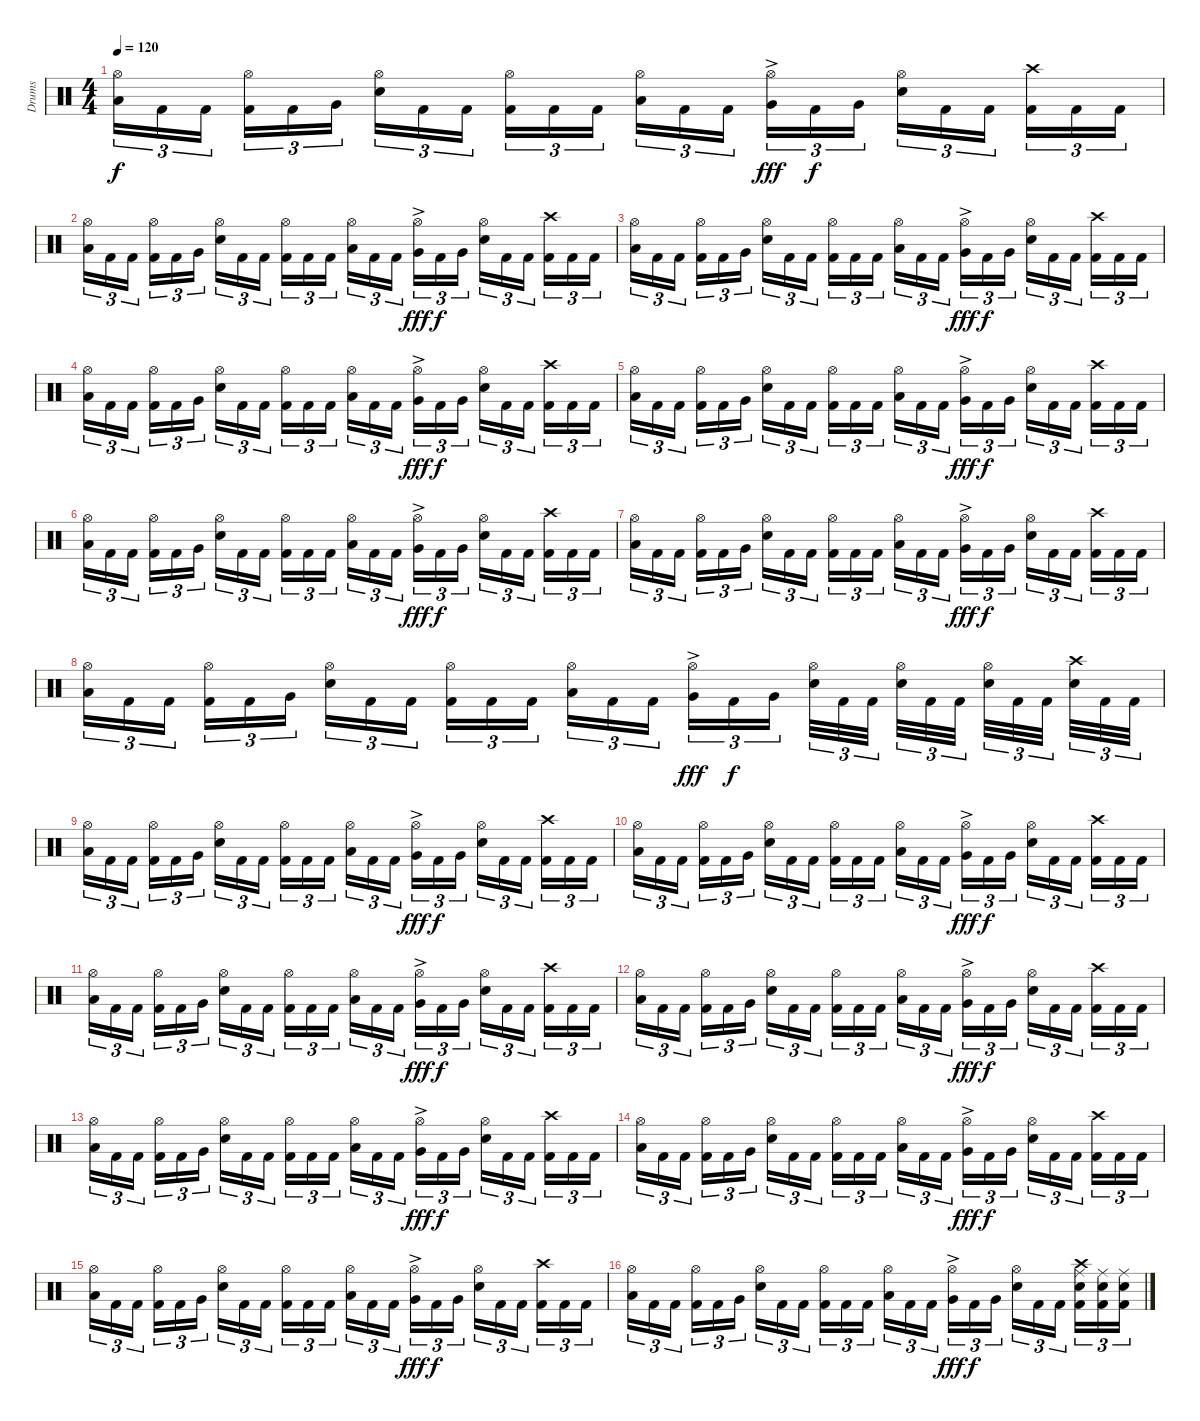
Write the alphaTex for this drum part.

\track ("Drums" "Drums") {instrument percussion}
\staff {score}
\articulation defaults
\ts (4 4)
\tempo 120
\clef neutral
\ks c
("Hi-Hat (open)" "Low Tom (hit)").16{tu (3 2) dy f} "Kick (hit) 2".16{tu (3 2)} "Kick (hit) 2".16{tu (3 2)} ("Hi-Hat (open)" "Kick (hit) 2").16{tu (3 2)} "Kick (hit) 2".16{tu (3 2)} "Very Low Tom (hit)".16{tu (3 2)} ("Hi-Hat (open)" "Electric Snare (hit)").16{tu (3 2)} "Kick (hit) 2".16{tu (3 2)} "Kick (hit) 2".16{tu (3 2)} ("Hi-Hat (open)" "Kick (hit) 2").16{tu (3 2)} "Kick (hit) 2".16{tu (3 2)} "Kick (hit) 2".16{tu (3 2)} ("Hi-Hat (open)" "Low Tom (hit)").16{tu (3 2)} "Kick (hit) 2".16{tu (3 2)} "Kick (hit) 2".16{tu (3 2)} ("Hi-Hat (open)" "Very Low Tom (hit)"{ac}).16{tu (3 2) dy fff} "Kick (hit) 2".16{tu (3 2) dy f} "Very Low Tom (hit)".16{tu (3 2)} ("Hi-Hat (open)" "Electric Snare (hit)").16{tu (3 2)} "Kick (hit) 2".16{tu (3 2)} "Kick (hit) 2".16{tu (3 2)} ("Crash high (hit)" "Kick (hit) 2").16{tu (3 2)} "Kick (hit) 2".16{tu (3 2)} "Kick (hit) 2".16{tu (3 2)} |
("Hi-Hat (open)" "Low Tom (hit)").16{tu (3 2)} "Kick (hit) 2".16{tu (3 2)} "Kick (hit) 2".16{tu (3 2)} ("Hi-Hat (open)" "Kick (hit) 2").16{tu (3 2)} "Kick (hit) 2".16{tu (3 2)} "Very Low Tom (hit)".16{tu (3 2)} ("Hi-Hat (open)" "Electric Snare (hit)").16{tu (3 2)} "Kick (hit) 2".16{tu (3 2)} "Kick (hit) 2".16{tu (3 2)} ("Hi-Hat (open)" "Kick (hit) 2").16{tu (3 2)} "Kick (hit) 2".16{tu (3 2)} "Kick (hit) 2".16{tu (3 2)} ("Hi-Hat (open)" "Low Tom (hit)").16{tu (3 2)} "Kick (hit) 2".16{tu (3 2)} "Kick (hit) 2".16{tu (3 2)} ("Hi-Hat (open)" "Very Low Tom (hit)"{ac}).16{tu (3 2) dy fff} "Kick (hit) 2".16{tu (3 2) dy f} "Very Low Tom (hit)".16{tu (3 2)} ("Hi-Hat (open)" "Electric Snare (hit)").16{tu (3 2)} "Kick (hit) 2".16{tu (3 2)} "Kick (hit) 2".16{tu (3 2)} ("Crash high (hit)" "Kick (hit) 2").16{tu (3 2)} "Kick (hit) 2".16{tu (3 2)} "Kick (hit) 2".16{tu (3 2)} |
("Hi-Hat (open)" "Low Tom (hit)").16{tu (3 2)} "Kick (hit) 2".16{tu (3 2)} "Kick (hit) 2".16{tu (3 2)} ("Hi-Hat (open)" "Kick (hit) 2").16{tu (3 2)} "Kick (hit) 2".16{tu (3 2)} "Very Low Tom (hit)".16{tu (3 2)} ("Hi-Hat (open)" "Electric Snare (hit)").16{tu (3 2)} "Kick (hit) 2".16{tu (3 2)} "Kick (hit) 2".16{tu (3 2)} ("Hi-Hat (open)" "Kick (hit) 2").16{tu (3 2)} "Kick (hit) 2".16{tu (3 2)} "Kick (hit) 2".16{tu (3 2)} ("Hi-Hat (open)" "Low Tom (hit)").16{tu (3 2)} "Kick (hit) 2".16{tu (3 2)} "Kick (hit) 2".16{tu (3 2)} ("Hi-Hat (open)" "Very Low Tom (hit)"{ac}).16{tu (3 2) dy fff} "Kick (hit) 2".16{tu (3 2) dy f} "Very Low Tom (hit)".16{tu (3 2)} ("Hi-Hat (open)" "Electric Snare (hit)").16{tu (3 2)} "Kick (hit) 2".16{tu (3 2)} "Kick (hit) 2".16{tu (3 2)} ("Crash high (hit)" "Kick (hit) 2").16{tu (3 2)} "Kick (hit) 2".16{tu (3 2)} "Kick (hit) 2".16{tu (3 2)} |
("Hi-Hat (open)" "Low Tom (hit)").16{tu (3 2)} "Kick (hit) 2".16{tu (3 2)} "Kick (hit) 2".16{tu (3 2)} ("Hi-Hat (open)" "Kick (hit) 2").16{tu (3 2)} "Kick (hit) 2".16{tu (3 2)} "Very Low Tom (hit)".16{tu (3 2)} ("Hi-Hat (open)" "Electric Snare (hit)").16{tu (3 2)} "Kick (hit) 2".16{tu (3 2)} "Kick (hit) 2".16{tu (3 2)} ("Hi-Hat (open)" "Kick (hit) 2").16{tu (3 2)} "Kick (hit) 2".16{tu (3 2)} "Kick (hit) 2".16{tu (3 2)} ("Hi-Hat (open)" "Low Tom (hit)").16{tu (3 2)} "Kick (hit) 2".16{tu (3 2)} "Kick (hit) 2".16{tu (3 2)} ("Hi-Hat (open)" "Very Low Tom (hit)"{ac}).16{tu (3 2) dy fff} "Kick (hit) 2".16{tu (3 2) dy f} "Very Low Tom (hit)".16{tu (3 2)} ("Hi-Hat (open)" "Electric Snare (hit)").16{tu (3 2)} "Kick (hit) 2".16{tu (3 2)} "Kick (hit) 2".16{tu (3 2)} ("Crash high (hit)" "Kick (hit) 2").16{tu (3 2)} "Kick (hit) 2".16{tu (3 2)} "Kick (hit) 2".16{tu (3 2)} |
("Hi-Hat (open)" "Low Tom (hit)").16{tu (3 2)} "Kick (hit) 2".16{tu (3 2)} "Kick (hit) 2".16{tu (3 2)} ("Hi-Hat (open)" "Kick (hit) 2").16{tu (3 2)} "Kick (hit) 2".16{tu (3 2)} "Very Low Tom (hit)".16{tu (3 2)} ("Hi-Hat (open)" "Electric Snare (hit)").16{tu (3 2)} "Kick (hit) 2".16{tu (3 2)} "Kick (hit) 2".16{tu (3 2)} ("Hi-Hat (open)" "Kick (hit) 2").16{tu (3 2)} "Kick (hit) 2".16{tu (3 2)} "Kick (hit) 2".16{tu (3 2)} ("Hi-Hat (open)" "Low Tom (hit)").16{tu (3 2)} "Kick (hit) 2".16{tu (3 2)} "Kick (hit) 2".16{tu (3 2)} ("Hi-Hat (open)" "Very Low Tom (hit)"{ac}).16{tu (3 2) dy fff} "Kick (hit) 2".16{tu (3 2) dy f} "Very Low Tom (hit)".16{tu (3 2)} ("Hi-Hat (open)" "Electric Snare (hit)").16{tu (3 2)} "Kick (hit) 2".16{tu (3 2)} "Kick (hit) 2".16{tu (3 2)} ("Crash high (hit)" "Kick (hit) 2").16{tu (3 2)} "Kick (hit) 2".16{tu (3 2)} "Kick (hit) 2".16{tu (3 2)} |
("Hi-Hat (open)" "Low Tom (hit)").16{tu (3 2)} "Kick (hit) 2".16{tu (3 2)} "Kick (hit) 2".16{tu (3 2)} ("Hi-Hat (open)" "Kick (hit) 2").16{tu (3 2)} "Kick (hit) 2".16{tu (3 2)} "Very Low Tom (hit)".16{tu (3 2)} ("Hi-Hat (open)" "Electric Snare (hit)").16{tu (3 2)} "Kick (hit) 2".16{tu (3 2)} "Kick (hit) 2".16{tu (3 2)} ("Hi-Hat (open)" "Kick (hit) 2").16{tu (3 2)} "Kick (hit) 2".16{tu (3 2)} "Kick (hit) 2".16{tu (3 2)} ("Hi-Hat (open)" "Low Tom (hit)").16{tu (3 2)} "Kick (hit) 2".16{tu (3 2)} "Kick (hit) 2".16{tu (3 2)} ("Hi-Hat (open)" "Very Low Tom (hit)"{ac}).16{tu (3 2) dy fff} "Kick (hit) 2".16{tu (3 2) dy f} "Very Low Tom (hit)".16{tu (3 2)} ("Hi-Hat (open)" "Electric Snare (hit)").16{tu (3 2)} "Kick (hit) 2".16{tu (3 2)} "Kick (hit) 2".16{tu (3 2)} ("Crash high (hit)" "Kick (hit) 2").16{tu (3 2)} "Kick (hit) 2".16{tu (3 2)} "Kick (hit) 2".16{tu (3 2)} |
("Hi-Hat (open)" "Low Tom (hit)").16{tu (3 2)} "Kick (hit) 2".16{tu (3 2)} "Kick (hit) 2".16{tu (3 2)} ("Hi-Hat (open)" "Kick (hit) 2").16{tu (3 2)} "Kick (hit) 2".16{tu (3 2)} "Very Low Tom (hit)".16{tu (3 2)} ("Hi-Hat (open)" "Electric Snare (hit)").16{tu (3 2)} "Kick (hit) 2".16{tu (3 2)} "Kick (hit) 2".16{tu (3 2)} ("Hi-Hat (open)" "Kick (hit) 2").16{tu (3 2)} "Kick (hit) 2".16{tu (3 2)} "Kick (hit) 2".16{tu (3 2)} ("Hi-Hat (open)" "Low Tom (hit)").16{tu (3 2)} "Kick (hit) 2".16{tu (3 2)} "Kick (hit) 2".16{tu (3 2)} ("Hi-Hat (open)" "Very Low Tom (hit)"{ac}).16{tu (3 2) dy fff} "Kick (hit) 2".16{tu (3 2) dy f} "Very Low Tom (hit)".16{tu (3 2)} ("Hi-Hat (open)" "Electric Snare (hit)").16{tu (3 2)} "Kick (hit) 2".16{tu (3 2)} "Kick (hit) 2".16{tu (3 2)} ("Crash high (hit)" "Kick (hit) 2").16{tu (3 2)} "Kick (hit) 2".16{tu (3 2)} "Kick (hit) 2".16{tu (3 2)} |
("Hi-Hat (open)" "Low Tom (hit)").16{tu (3 2)} "Kick (hit) 2".16{tu (3 2)} "Kick (hit) 2".16{tu (3 2)} ("Hi-Hat (open)" "Kick (hit) 2").16{tu (3 2)} "Kick (hit) 2".16{tu (3 2)} "Very Low Tom (hit)".16{tu (3 2)} ("Hi-Hat (open)" "Electric Snare (hit)").16{tu (3 2)} "Kick (hit) 2".16{tu (3 2)} "Kick (hit) 2".16{tu (3 2)} ("Hi-Hat (open)" "Kick (hit) 2").16{tu (3 2)} "Kick (hit) 2".16{tu (3 2)} "Kick (hit) 2".16{tu (3 2)} ("Hi-Hat (open)" "Low Tom (hit)").16{tu (3 2)} "Kick (hit) 2".16{tu (3 2)} "Kick (hit) 2".16{tu (3 2)} ("Hi-Hat (open)" "Very Low Tom (hit)"{ac}).16{tu (3 2) dy fff} "Kick (hit) 2".16{tu (3 2) dy f} "Very Low Tom (hit)".16{tu (3 2)} ("Hi-Hat (open)" "Electric Snare (hit)").32{tu (3 2)} "Kick (hit) 2".32{tu (3 2)} "Kick (hit) 2".32{tu (3 2)} ("Hi-Hat (open)" "Electric Snare (hit)").32{tu (3 2)} "Kick (hit) 2".32{tu (3 2)} "Kick (hit) 2".32{tu (3 2)} ("Hi-Hat (open)" "Electric Snare (hit)").32{tu (3 2)} "Kick (hit) 2".32{tu (3 2)} "Kick (hit) 2".32{tu (3 2)} ("Crash high (hit)" "Electric Snare (hit)").32{tu (3 2)} "Kick (hit) 2".32{tu (3 2)} "Kick (hit) 2".32{tu (3 2)} |
("Hi-Hat (open)" "Low Tom (hit)").16{tu (3 2)} "Kick (hit) 2".16{tu (3 2)} "Kick (hit) 2".16{tu (3 2)} ("Hi-Hat (open)" "Kick (hit) 2").16{tu (3 2)} "Kick (hit) 2".16{tu (3 2)} "Very Low Tom (hit)".16{tu (3 2)} ("Hi-Hat (open)" "Electric Snare (hit)").16{tu (3 2)} "Kick (hit) 2".16{tu (3 2)} "Kick (hit) 2".16{tu (3 2)} ("Hi-Hat (open)" "Kick (hit) 2").16{tu (3 2)} "Kick (hit) 2".16{tu (3 2)} "Kick (hit) 2".16{tu (3 2)} ("Hi-Hat (open)" "Low Tom (hit)").16{tu (3 2)} "Kick (hit) 2".16{tu (3 2)} "Kick (hit) 2".16{tu (3 2)} ("Hi-Hat (open)" "Very Low Tom (hit)"{ac}).16{tu (3 2) dy fff} "Kick (hit) 2".16{tu (3 2) dy f} "Very Low Tom (hit)".16{tu (3 2)} ("Hi-Hat (open)" "Electric Snare (hit)").16{tu (3 2)} "Kick (hit) 2".16{tu (3 2)} "Kick (hit) 2".16{tu (3 2)} ("Crash high (hit)" "Kick (hit) 2").16{tu (3 2)} "Kick (hit) 2".16{tu (3 2)} "Kick (hit) 2".16{tu (3 2)} |
("Hi-Hat (open)" "Low Tom (hit)").16{tu (3 2)} "Kick (hit) 2".16{tu (3 2)} "Kick (hit) 2".16{tu (3 2)} ("Hi-Hat (open)" "Kick (hit) 2").16{tu (3 2)} "Kick (hit) 2".16{tu (3 2)} "Very Low Tom (hit)".16{tu (3 2)} ("Hi-Hat (open)" "Electric Snare (hit)").16{tu (3 2)} "Kick (hit) 2".16{tu (3 2)} "Kick (hit) 2".16{tu (3 2)} ("Hi-Hat (open)" "Kick (hit) 2").16{tu (3 2)} "Kick (hit) 2".16{tu (3 2)} "Kick (hit) 2".16{tu (3 2)} ("Hi-Hat (open)" "Low Tom (hit)").16{tu (3 2)} "Kick (hit) 2".16{tu (3 2)} "Kick (hit) 2".16{tu (3 2)} ("Hi-Hat (open)" "Very Low Tom (hit)"{ac}).16{tu (3 2) dy fff} "Kick (hit) 2".16{tu (3 2) dy f} "Very Low Tom (hit)".16{tu (3 2)} ("Hi-Hat (open)" "Electric Snare (hit)").16{tu (3 2)} "Kick (hit) 2".16{tu (3 2)} "Kick (hit) 2".16{tu (3 2)} ("Crash high (hit)" "Kick (hit) 2").16{tu (3 2)} "Kick (hit) 2".16{tu (3 2)} "Kick (hit) 2".16{tu (3 2)} |
("Hi-Hat (open)" "Low Tom (hit)").16{tu (3 2)} "Kick (hit) 2".16{tu (3 2)} "Kick (hit) 2".16{tu (3 2)} ("Hi-Hat (open)" "Kick (hit) 2").16{tu (3 2)} "Kick (hit) 2".16{tu (3 2)} "Very Low Tom (hit)".16{tu (3 2)} ("Hi-Hat (open)" "Electric Snare (hit)").16{tu (3 2)} "Kick (hit) 2".16{tu (3 2)} "Kick (hit) 2".16{tu (3 2)} ("Hi-Hat (open)" "Kick (hit) 2").16{tu (3 2)} "Kick (hit) 2".16{tu (3 2)} "Kick (hit) 2".16{tu (3 2)} ("Hi-Hat (open)" "Low Tom (hit)").16{tu (3 2)} "Kick (hit) 2".16{tu (3 2)} "Kick (hit) 2".16{tu (3 2)} ("Hi-Hat (open)" "Very Low Tom (hit)"{ac}).16{tu (3 2) dy fff} "Kick (hit) 2".16{tu (3 2) dy f} "Very Low Tom (hit)".16{tu (3 2)} ("Hi-Hat (open)" "Electric Snare (hit)").16{tu (3 2)} "Kick (hit) 2".16{tu (3 2)} "Kick (hit) 2".16{tu (3 2)} ("Crash high (hit)" "Kick (hit) 2").16{tu (3 2)} "Kick (hit) 2".16{tu (3 2)} "Kick (hit) 2".16{tu (3 2)} |
("Hi-Hat (open)" "Low Tom (hit)").16{tu (3 2)} "Kick (hit) 2".16{tu (3 2)} "Kick (hit) 2".16{tu (3 2)} ("Hi-Hat (open)" "Kick (hit) 2").16{tu (3 2)} "Kick (hit) 2".16{tu (3 2)} "Very Low Tom (hit)".16{tu (3 2)} ("Hi-Hat (open)" "Electric Snare (hit)").16{tu (3 2)} "Kick (hit) 2".16{tu (3 2)} "Kick (hit) 2".16{tu (3 2)} ("Hi-Hat (open)" "Kick (hit) 2").16{tu (3 2)} "Kick (hit) 2".16{tu (3 2)} "Kick (hit) 2".16{tu (3 2)} ("Hi-Hat (open)" "Low Tom (hit)").16{tu (3 2)} "Kick (hit) 2".16{tu (3 2)} "Kick (hit) 2".16{tu (3 2)} ("Hi-Hat (open)" "Very Low Tom (hit)"{ac}).16{tu (3 2) dy fff} "Kick (hit) 2".16{tu (3 2) dy f} "Very Low Tom (hit)".16{tu (3 2)} ("Hi-Hat (open)" "Electric Snare (hit)").16{tu (3 2)} "Kick (hit) 2".16{tu (3 2)} "Kick (hit) 2".16{tu (3 2)} ("Crash high (hit)" "Kick (hit) 2").16{tu (3 2)} "Kick (hit) 2".16{tu (3 2)} "Kick (hit) 2".16{tu (3 2)} |
("Hi-Hat (open)" "Low Tom (hit)").16{tu (3 2)} "Kick (hit) 2".16{tu (3 2)} "Kick (hit) 2".16{tu (3 2)} ("Hi-Hat (open)" "Kick (hit) 2").16{tu (3 2)} "Kick (hit) 2".16{tu (3 2)} "Very Low Tom (hit)".16{tu (3 2)} ("Hi-Hat (open)" "Electric Snare (hit)").16{tu (3 2)} "Kick (hit) 2".16{tu (3 2)} "Kick (hit) 2".16{tu (3 2)} ("Hi-Hat (open)" "Kick (hit) 2").16{tu (3 2)} "Kick (hit) 2".16{tu (3 2)} "Kick (hit) 2".16{tu (3 2)} ("Hi-Hat (open)" "Low Tom (hit)").16{tu (3 2)} "Kick (hit) 2".16{tu (3 2)} "Kick (hit) 2".16{tu (3 2)} ("Hi-Hat (open)" "Very Low Tom (hit)"{ac}).16{tu (3 2) dy fff} "Kick (hit) 2".16{tu (3 2) dy f} "Very Low Tom (hit)".16{tu (3 2)} ("Hi-Hat (open)" "Electric Snare (hit)").16{tu (3 2)} "Kick (hit) 2".16{tu (3 2)} "Kick (hit) 2".16{tu (3 2)} ("Crash high (hit)" "Kick (hit) 2").16{tu (3 2)} "Kick (hit) 2".16{tu (3 2)} "Kick (hit) 2".16{tu (3 2)} |
("Hi-Hat (open)" "Low Tom (hit)").16{tu (3 2)} "Kick (hit) 2".16{tu (3 2)} "Kick (hit) 2".16{tu (3 2)} ("Hi-Hat (open)" "Kick (hit) 2").16{tu (3 2)} "Kick (hit) 2".16{tu (3 2)} "Very Low Tom (hit)".16{tu (3 2)} ("Hi-Hat (open)" "Electric Snare (hit)").16{tu (3 2)} "Kick (hit) 2".16{tu (3 2)} "Kick (hit) 2".16{tu (3 2)} ("Hi-Hat (open)" "Kick (hit) 2").16{tu (3 2)} "Kick (hit) 2".16{tu (3 2)} "Kick (hit) 2".16{tu (3 2)} ("Hi-Hat (open)" "Low Tom (hit)").16{tu (3 2)} "Kick (hit) 2".16{tu (3 2)} "Kick (hit) 2".16{tu (3 2)} ("Hi-Hat (open)" "Very Low Tom (hit)"{ac}).16{tu (3 2) dy fff} "Kick (hit) 2".16{tu (3 2) dy f} "Very Low Tom (hit)".16{tu (3 2)} ("Hi-Hat (open)" "Electric Snare (hit)").16{tu (3 2)} "Kick (hit) 2".16{tu (3 2)} "Kick (hit) 2".16{tu (3 2)} ("Crash high (hit)" "Kick (hit) 2").16{tu (3 2)} "Kick (hit) 2".16{tu (3 2)} "Kick (hit) 2".16{tu (3 2)} |
("Hi-Hat (open)" "Low Tom (hit)").16{tu (3 2)} "Kick (hit) 2".16{tu (3 2)} "Kick (hit) 2".16{tu (3 2)} ("Hi-Hat (open)" "Kick (hit) 2").16{tu (3 2)} "Kick (hit) 2".16{tu (3 2)} "Very Low Tom (hit)".16{tu (3 2)} ("Hi-Hat (open)" "Electric Snare (hit)").16{tu (3 2)} "Kick (hit) 2".16{tu (3 2)} "Kick (hit) 2".16{tu (3 2)} ("Hi-Hat (open)" "Kick (hit) 2").16{tu (3 2)} "Kick (hit) 2".16{tu (3 2)} "Kick (hit) 2".16{tu (3 2)} ("Hi-Hat (open)" "Low Tom (hit)").16{tu (3 2)} "Kick (hit) 2".16{tu (3 2)} "Kick (hit) 2".16{tu (3 2)} ("Hi-Hat (open)" "Very Low Tom (hit)"{ac}).16{tu (3 2) dy fff} "Kick (hit) 2".16{tu (3 2) dy f} "Very Low Tom (hit)".16{tu (3 2)} ("Hi-Hat (open)" "Electric Snare (hit)").16{tu (3 2)} "Kick (hit) 2".16{tu (3 2)} "Kick (hit) 2".16{tu (3 2)} ("Crash high (hit)" "Kick (hit) 2").16{tu (3 2)} "Kick (hit) 2".16{tu (3 2)} "Kick (hit) 2".16{tu (3 2)} |
("Hi-Hat (open)" "Low Tom (hit)").16{tu (3 2)} "Kick (hit) 2".16{tu (3 2)} "Kick (hit) 2".16{tu (3 2)} ("Hi-Hat (open)" "Kick (hit) 2").16{tu (3 2)} "Kick (hit) 2".16{tu (3 2)} "Very Low Tom (hit)".16{tu (3 2)} ("Hi-Hat (open)" "Electric Snare (hit)").16{tu (3 2)} "Kick (hit) 2".16{tu (3 2)} "Kick (hit) 2".16{tu (3 2)} ("Hi-Hat (open)" "Kick (hit) 2").16{tu (3 2)} "Kick (hit) 2".16{tu (3 2)} "Kick (hit) 2".16{tu (3 2)} ("Hi-Hat (open)" "Low Tom (hit)").16{tu (3 2)} "Kick (hit) 2".16{tu (3 2)} "Kick (hit) 2".16{tu (3 2)} ("Hi-Hat (open)" "Very Low Tom (hit)"{ac}).16{tu (3 2) dy fff} "Kick (hit) 2".16{tu (3 2) dy f} "Very Low Tom (hit)".16{tu (3 2)} ("Hi-Hat (open)" "Electric Snare (hit)").16{tu (3 2)} "Kick (hit) 2".16{tu (3 2)} "Kick (hit) 2".16{tu (3 2)} ("Crash high (hit)" "Ride (middle)" "Kick (hit) 2" "Electric Snare (hit)").16{tu (3 2)} ("Ride (middle)" "Kick (hit) 2" "Electric Snare (hit)").16{tu (3 2)} ("Ride (middle)" "Kick (hit) 2" "Electric Snare (hit)").16{tu (3 2)}
